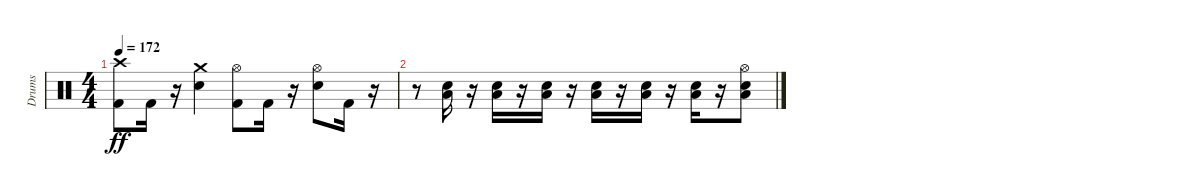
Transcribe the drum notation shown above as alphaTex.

\track ("Drums" "Drums") {instrument percussion}
\staff {score}
\articulation defaults
\ts (4 4)
\tempo 172
\clef neutral
\ks c
("Kick (hit) 2" "Crash high (hit)").8{dy ff} "Kick (hit) 2".16 r.16 ("Electric Snare (hit)" "Crash medium (hit)").4 ("Kick (hit) 2" "Hi-Hat (open)").8 "Kick (hit) 2".16 r.16 ("Electric Snare (hit)" "Hi-Hat (open)").8 "Kick (hit) 2".16 r.16 |
r.8 ("Electric Snare (hit)" "Low Tom (hit)").16 r.16 ("Electric Snare (hit)" "Low Tom (hit)").16 r.16 ("Electric Snare (hit)" "Low Tom (hit)").16 r.16 ("Electric Snare (hit)" "Low Tom (hit)").16 r.16 ("Electric Snare (hit)" "Low Tom (hit)").16 r.16 ("Electric Snare (hit)" "Low Tom (hit)").16 r.16 ("Electric Snare (hit)" "Low Tom (hit)" "Hi-Hat (open)").8
